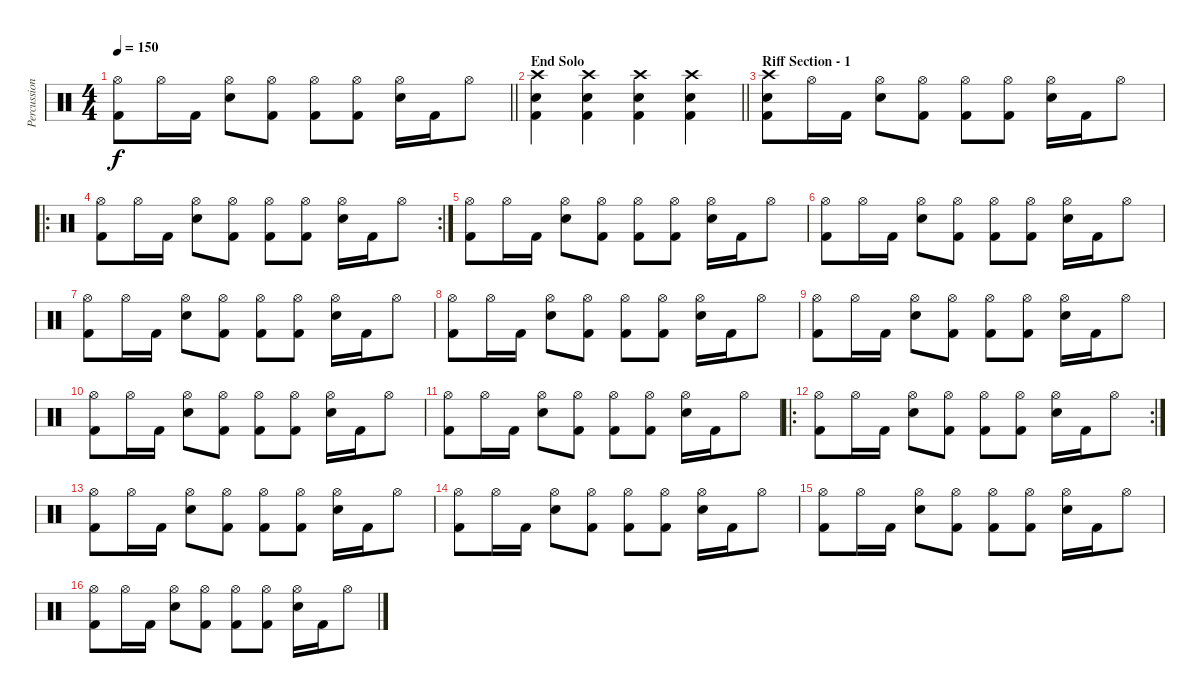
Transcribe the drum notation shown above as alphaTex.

\track ("Percussion" "Percussion") {instrument percussion}
\staff {score}
\articulation defaults
\ts (4 4)
\tempo 150
\clef neutral
\barLineRight lightlight
\ks c
("Hi-Hat (open)" "Kick (hit) 2").8{dy f} "Hi-Hat (open)".16 "Kick (hit) 2".16 ("Hi-Hat (open)" "Snare (hit) 2").8 ("Hi-Hat (open)" "Kick (hit) 2").8 ("Hi-Hat (open)" "Kick (hit) 2").8 ("Hi-Hat (open)" "Kick (hit) 2").8 ("Hi-Hat (open)" "Snare (hit) 2").16 "Kick (hit) 2".16 "Hi-Hat (open)".8 |
\section ("" "End Solo")
\barLineRight lightlight
("Crash high (hit)" "Snare (hit) 2" "Kick (hit) 2").4 ("Crash high (hit)" "Snare (hit) 2" "Kick (hit) 2").4 ("Crash high (hit)" "Snare (hit) 2" "Kick (hit) 2").4 ("Crash high (hit)" "Snare (hit) 2" "Kick (hit) 2").4 |
\section ("" "Riff Section - 1")
("Crash high (hit)" "Snare (hit) 2" "Kick (hit) 2").8 "Hi-Hat (open)".16 "Kick (hit) 2".16 ("Hi-Hat (open)" "Snare (hit) 2").8 ("Hi-Hat (open)" "Kick (hit) 2").8 ("Hi-Hat (open)" "Kick (hit) 2").8 ("Hi-Hat (open)" "Kick (hit) 2").8 ("Hi-Hat (open)" "Snare (hit) 2").16 "Kick (hit) 2".16 "Hi-Hat (open)".8 |
\ro
\rc 2
("Hi-Hat (open)" "Kick (hit) 2").8 "Hi-Hat (open)".16 "Kick (hit) 2".16 ("Hi-Hat (open)" "Snare (hit) 2").8 ("Hi-Hat (open)" "Kick (hit) 2").8 ("Hi-Hat (open)" "Kick (hit) 2").8 ("Hi-Hat (open)" "Kick (hit) 2").8 ("Hi-Hat (open)" "Snare (hit) 2").16 "Kick (hit) 2".16 "Hi-Hat (open)".8 |
("Hi-Hat (open)" "Kick (hit) 2").8 "Hi-Hat (open)".16 "Kick (hit) 2".16 ("Hi-Hat (open)" "Snare (hit) 2").8 ("Hi-Hat (open)" "Kick (hit) 2").8 ("Hi-Hat (open)" "Kick (hit) 2").8 ("Hi-Hat (open)" "Kick (hit) 2").8 ("Hi-Hat (open)" "Snare (hit) 2").16 "Kick (hit) 2".16 "Hi-Hat (open)".8 |
("Hi-Hat (open)" "Kick (hit) 2").8 "Hi-Hat (open)".16 "Kick (hit) 2".16 ("Hi-Hat (open)" "Snare (hit) 2").8 ("Hi-Hat (open)" "Kick (hit) 2").8 ("Hi-Hat (open)" "Kick (hit) 2").8 ("Hi-Hat (open)" "Kick (hit) 2").8 ("Hi-Hat (open)" "Snare (hit) 2").16 "Kick (hit) 2".16 "Hi-Hat (open)".8 |
("Hi-Hat (open)" "Kick (hit) 2").8 "Hi-Hat (open)".16 "Kick (hit) 2".16 ("Hi-Hat (open)" "Snare (hit) 2").8 ("Hi-Hat (open)" "Kick (hit) 2").8 ("Hi-Hat (open)" "Kick (hit) 2").8 ("Hi-Hat (open)" "Kick (hit) 2").8 ("Hi-Hat (open)" "Snare (hit) 2").16 "Kick (hit) 2".16 "Hi-Hat (open)".8 |
("Hi-Hat (open)" "Kick (hit) 2").8 "Hi-Hat (open)".16 "Kick (hit) 2".16 ("Hi-Hat (open)" "Snare (hit) 2").8 ("Hi-Hat (open)" "Kick (hit) 2").8 ("Hi-Hat (open)" "Kick (hit) 2").8 ("Hi-Hat (open)" "Kick (hit) 2").8 ("Hi-Hat (open)" "Snare (hit) 2").16 "Kick (hit) 2".16 "Hi-Hat (open)".8 |
("Hi-Hat (open)" "Kick (hit) 2").8 "Hi-Hat (open)".16 "Kick (hit) 2".16 ("Hi-Hat (open)" "Snare (hit) 2").8 ("Hi-Hat (open)" "Kick (hit) 2").8 ("Hi-Hat (open)" "Kick (hit) 2").8 ("Hi-Hat (open)" "Kick (hit) 2").8 ("Hi-Hat (open)" "Snare (hit) 2").16 "Kick (hit) 2".16 "Hi-Hat (open)".8 |
("Hi-Hat (open)" "Kick (hit) 2").8 "Hi-Hat (open)".16 "Kick (hit) 2".16 ("Hi-Hat (open)" "Snare (hit) 2").8 ("Hi-Hat (open)" "Kick (hit) 2").8 ("Hi-Hat (open)" "Kick (hit) 2").8 ("Hi-Hat (open)" "Kick (hit) 2").8 ("Hi-Hat (open)" "Snare (hit) 2").16 "Kick (hit) 2".16 "Hi-Hat (open)".8 |
("Hi-Hat (open)" "Kick (hit) 2").8 "Hi-Hat (open)".16 "Kick (hit) 2".16 ("Hi-Hat (open)" "Snare (hit) 2").8 ("Hi-Hat (open)" "Kick (hit) 2").8 ("Hi-Hat (open)" "Kick (hit) 2").8 ("Hi-Hat (open)" "Kick (hit) 2").8 ("Hi-Hat (open)" "Snare (hit) 2").16 "Kick (hit) 2".16 "Hi-Hat (open)".8 |
\ro
\rc 2
("Hi-Hat (open)" "Kick (hit) 2").8 "Hi-Hat (open)".16 "Kick (hit) 2".16 ("Hi-Hat (open)" "Snare (hit) 2").8 ("Hi-Hat (open)" "Kick (hit) 2").8 ("Hi-Hat (open)" "Kick (hit) 2").8 ("Hi-Hat (open)" "Kick (hit) 2").8 ("Hi-Hat (open)" "Snare (hit) 2").16 "Kick (hit) 2".16 "Hi-Hat (open)".8 |
("Hi-Hat (open)" "Kick (hit) 2").8 "Hi-Hat (open)".16 "Kick (hit) 2".16 ("Hi-Hat (open)" "Snare (hit) 2").8 ("Hi-Hat (open)" "Kick (hit) 2").8 ("Hi-Hat (open)" "Kick (hit) 2").8 ("Hi-Hat (open)" "Kick (hit) 2").8 ("Hi-Hat (open)" "Snare (hit) 2").16 "Kick (hit) 2".16 "Hi-Hat (open)".8 |
("Hi-Hat (open)" "Kick (hit) 2").8 "Hi-Hat (open)".16 "Kick (hit) 2".16 ("Hi-Hat (open)" "Snare (hit) 2").8 ("Hi-Hat (open)" "Kick (hit) 2").8 ("Hi-Hat (open)" "Kick (hit) 2").8 ("Hi-Hat (open)" "Kick (hit) 2").8 ("Hi-Hat (open)" "Snare (hit) 2").16 "Kick (hit) 2".16 "Hi-Hat (open)".8 |
("Hi-Hat (open)" "Kick (hit) 2").8 "Hi-Hat (open)".16 "Kick (hit) 2".16 ("Hi-Hat (open)" "Snare (hit) 2").8 ("Hi-Hat (open)" "Kick (hit) 2").8 ("Hi-Hat (open)" "Kick (hit) 2").8 ("Hi-Hat (open)" "Kick (hit) 2").8 ("Hi-Hat (open)" "Snare (hit) 2").16 "Kick (hit) 2".16 "Hi-Hat (open)".8 |
("Hi-Hat (open)" "Kick (hit) 2").8 "Hi-Hat (open)".16 "Kick (hit) 2".16 ("Hi-Hat (open)" "Snare (hit) 2").8 ("Hi-Hat (open)" "Kick (hit) 2").8 ("Hi-Hat (open)" "Kick (hit) 2").8 ("Hi-Hat (open)" "Kick (hit) 2").8 ("Hi-Hat (open)" "Snare (hit) 2").16 "Kick (hit) 2".16 "Hi-Hat (open)".8
